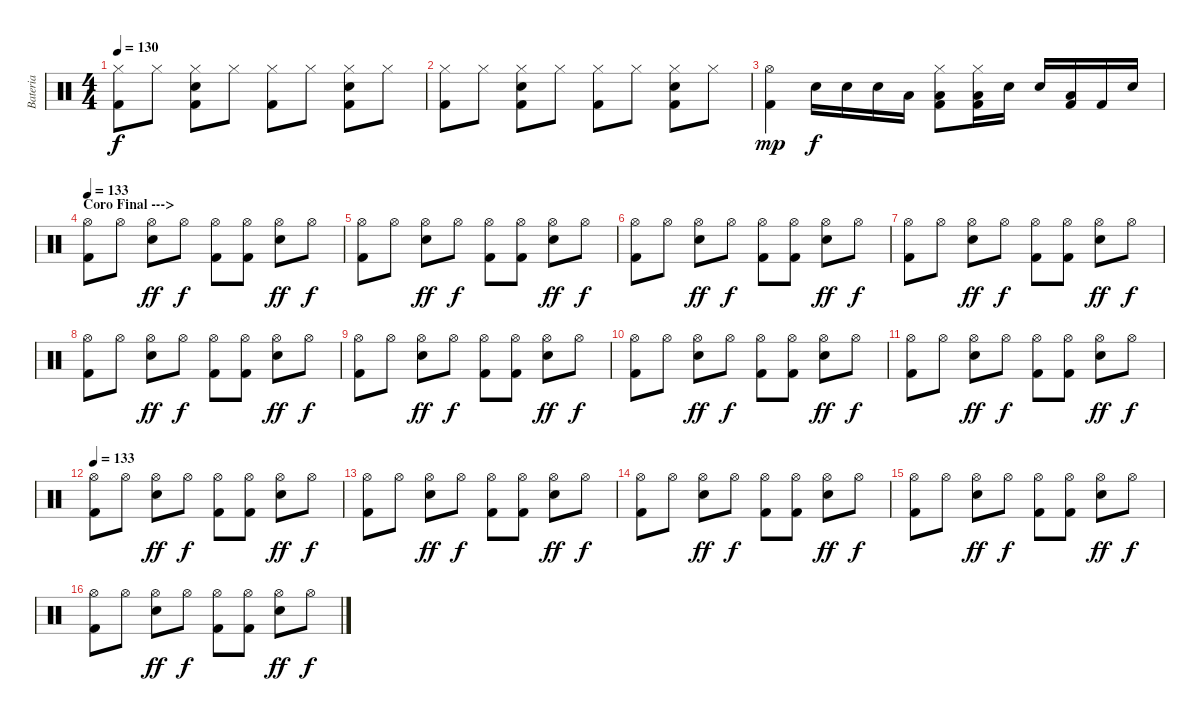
\track ("Bateria" "Bateria") {instrument percussion}
\staff {score}
\articulation defaults
\ts (4 4)
\tempo 130
\clef neutral
\ks c
("Hi-Hat (closed)" "Kick (hit) 2").8{dy f} "Hi-Hat (closed)".8 ("Hi-Hat (closed)" "Snare (hit) 2" "Kick (hit) 2").8 "Hi-Hat (closed)".8 ("Hi-Hat (closed)" "Kick (hit) 2").8 "Hi-Hat (closed)".8 ("Hi-Hat (closed)" "Snare (hit) 2" "Kick (hit) 2").8 "Hi-Hat (closed)".8 |
("Hi-Hat (closed)" "Kick (hit) 2").8 "Hi-Hat (closed)".8 ("Hi-Hat (closed)" "Snare (hit) 2" "Kick (hit) 2").8 "Hi-Hat (closed)".8 ("Hi-Hat (closed)" "Kick (hit) 2").8 "Hi-Hat (closed)".8 ("Hi-Hat (closed)" "Snare (hit) 2" "Kick (hit) 2").8 "Hi-Hat (closed)".8 |
("Hi-Hat (open)" "Kick (hit) 2").4{dy mp} "Snare (hit) 2".16{dy f} "Snare (hit) 2".16 "Snare (hit) 2".16 "Low Tom (hit)".16 ("Hi-Hat (closed)" "Low Tom (hit)" "Kick (hit) 2").8 ("Hi-Hat (closed)" "Low Tom (hit)" "Kick (hit) 2").16 "Snare (hit) 2".16 "Snare (hit) 2".16 ("Low Tom (hit)" "Kick (hit) 2").16 "Kick (hit) 2".16 "Snare (hit) 2".16 |
\section ("" "Coro Final --->")
\tempo 133
("Hi-Hat (open)" "Kick (hit) 2").8 "Hi-Hat (open)".8 ("Hi-Hat (open)" "Snare (hit) 2").8{dy ff} "Hi-Hat (open)".8{dy f} ("Hi-Hat (open)" "Kick (hit) 2").8 ("Hi-Hat (open)" "Kick (hit) 2").8 ("Hi-Hat (open)" "Snare (hit) 2").8{dy ff} "Hi-Hat (open)".8{dy f} |
("Hi-Hat (open)" "Kick (hit) 2").8 "Hi-Hat (open)".8 ("Hi-Hat (open)" "Snare (hit) 2").8{dy ff} "Hi-Hat (open)".8{dy f} ("Hi-Hat (open)" "Kick (hit) 2").8 ("Hi-Hat (open)" "Kick (hit) 2").8 ("Hi-Hat (open)" "Snare (hit) 2").8{dy ff} "Hi-Hat (open)".8{dy f} |
("Hi-Hat (open)" "Kick (hit) 2").8 "Hi-Hat (open)".8 ("Hi-Hat (open)" "Snare (hit) 2").8{dy ff} "Hi-Hat (open)".8{dy f} ("Hi-Hat (open)" "Kick (hit) 2").8 ("Hi-Hat (open)" "Kick (hit) 2").8 ("Hi-Hat (open)" "Snare (hit) 2").8{dy ff} "Hi-Hat (open)".8{dy f} |
("Hi-Hat (open)" "Kick (hit) 2").8 "Hi-Hat (open)".8 ("Hi-Hat (open)" "Snare (hit) 2").8{dy ff} "Hi-Hat (open)".8{dy f} ("Hi-Hat (open)" "Kick (hit) 2").8 ("Hi-Hat (open)" "Kick (hit) 2").8 ("Hi-Hat (open)" "Snare (hit) 2").8{dy ff} "Hi-Hat (open)".8{dy f} |
("Hi-Hat (open)" "Kick (hit) 2").8 "Hi-Hat (open)".8 ("Hi-Hat (open)" "Snare (hit) 2").8{dy ff} "Hi-Hat (open)".8{dy f} ("Hi-Hat (open)" "Kick (hit) 2").8 ("Hi-Hat (open)" "Kick (hit) 2").8 ("Hi-Hat (open)" "Snare (hit) 2").8{dy ff} "Hi-Hat (open)".8{dy f} |
("Hi-Hat (open)" "Kick (hit) 2").8 "Hi-Hat (open)".8 ("Hi-Hat (open)" "Snare (hit) 2").8{dy ff} "Hi-Hat (open)".8{dy f} ("Hi-Hat (open)" "Kick (hit) 2").8 ("Hi-Hat (open)" "Kick (hit) 2").8 ("Hi-Hat (open)" "Snare (hit) 2").8{dy ff} "Hi-Hat (open)".8{dy f} |
("Hi-Hat (open)" "Kick (hit) 2").8 "Hi-Hat (open)".8 ("Hi-Hat (open)" "Snare (hit) 2").8{dy ff} "Hi-Hat (open)".8{dy f} ("Hi-Hat (open)" "Kick (hit) 2").8 ("Hi-Hat (open)" "Kick (hit) 2").8 ("Hi-Hat (open)" "Snare (hit) 2").8{dy ff} "Hi-Hat (open)".8{dy f} |
("Hi-Hat (open)" "Kick (hit) 2").8 "Hi-Hat (open)".8 ("Hi-Hat (open)" "Snare (hit) 2").8{dy ff} "Hi-Hat (open)".8{dy f} ("Hi-Hat (open)" "Kick (hit) 2").8 ("Hi-Hat (open)" "Kick (hit) 2").8 ("Hi-Hat (open)" "Snare (hit) 2").8{dy ff} "Hi-Hat (open)".8{dy f} |
\tempo 133
("Hi-Hat (open)" "Kick (hit) 2").8 "Hi-Hat (open)".8 ("Hi-Hat (open)" "Snare (hit) 2").8{dy ff} "Hi-Hat (open)".8{dy f} ("Hi-Hat (open)" "Kick (hit) 2").8 ("Hi-Hat (open)" "Kick (hit) 2").8 ("Hi-Hat (open)" "Snare (hit) 2").8{dy ff} "Hi-Hat (open)".8{dy f} |
("Hi-Hat (open)" "Kick (hit) 2").8 "Hi-Hat (open)".8 ("Hi-Hat (open)" "Snare (hit) 2").8{dy ff} "Hi-Hat (open)".8{dy f} ("Hi-Hat (open)" "Kick (hit) 2").8 ("Hi-Hat (open)" "Kick (hit) 2").8 ("Hi-Hat (open)" "Snare (hit) 2").8{dy ff} "Hi-Hat (open)".8{dy f} |
("Hi-Hat (open)" "Kick (hit) 2").8 "Hi-Hat (open)".8 ("Hi-Hat (open)" "Snare (hit) 2").8{dy ff} "Hi-Hat (open)".8{dy f} ("Hi-Hat (open)" "Kick (hit) 2").8 ("Hi-Hat (open)" "Kick (hit) 2").8 ("Hi-Hat (open)" "Snare (hit) 2").8{dy ff} "Hi-Hat (open)".8{dy f} |
("Hi-Hat (open)" "Kick (hit) 2").8 "Hi-Hat (open)".8 ("Hi-Hat (open)" "Snare (hit) 2").8{dy ff} "Hi-Hat (open)".8{dy f} ("Hi-Hat (open)" "Kick (hit) 2").8 ("Hi-Hat (open)" "Kick (hit) 2").8 ("Hi-Hat (open)" "Snare (hit) 2").8{dy ff} "Hi-Hat (open)".8{dy f} |
("Hi-Hat (open)" "Kick (hit) 2").8 "Hi-Hat (open)".8 ("Hi-Hat (open)" "Snare (hit) 2").8{dy ff} "Hi-Hat (open)".8{dy f} ("Hi-Hat (open)" "Kick (hit) 2").8 ("Hi-Hat (open)" "Kick (hit) 2").8 ("Hi-Hat (open)" "Snare (hit) 2").8{dy ff} "Hi-Hat (open)".8{dy f}
